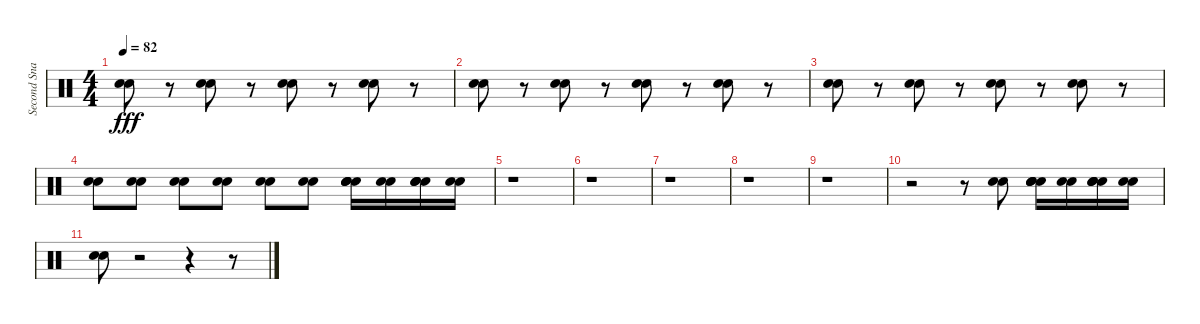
\track ("Second Snare" "Second Sna") {instrument percussion}
\staff {score}
\articulation defaults
\ts (4 4)
\tempo 82
\clef neutral
\ks c
("Snare (hit) 2" "Electric Snare (hit)").8{dy fff} r.8 ("Snare (hit) 2" "Electric Snare (hit)").8 r.8 ("Snare (hit) 2" "Electric Snare (hit)").8 r.8 ("Snare (hit) 2" "Electric Snare (hit)").8 r.8 |
("Snare (hit) 2" "Electric Snare (hit)").8 r.8 ("Snare (hit) 2" "Electric Snare (hit)").8 r.8 ("Snare (hit) 2" "Electric Snare (hit)").8 r.8 ("Snare (hit) 2" "Electric Snare (hit)").8 r.8 |
("Snare (hit) 2" "Electric Snare (hit)").8 r.8 ("Snare (hit) 2" "Electric Snare (hit)").8 r.8 ("Snare (hit) 2" "Electric Snare (hit)").8 r.8 ("Snare (hit) 2" "Electric Snare (hit)").8 r.8 |
("Snare (hit) 2" "Electric Snare (hit)").8 ("Snare (hit) 2" "Electric Snare (hit)").8 ("Snare (hit) 2" "Electric Snare (hit)").8 ("Snare (hit) 2" "Electric Snare (hit)").8 ("Snare (hit) 2" "Electric Snare (hit)").8 ("Snare (hit) 2" "Electric Snare (hit)").8 ("Snare (hit) 2" "Snare (hit) 2" "Electric Snare (hit)" "Electric Snare (hit)").16 ("Snare (hit) 2" "Electric Snare (hit)").16 ("Snare (hit) 2" "Snare (hit) 2" "Electric Snare (hit)" "Electric Snare (hit)").16 ("Snare (hit) 2" "Electric Snare (hit)").16 |
r.1 |
r.1 |
r.1 |
r.1 |
r.1 |
r.2 r.8 ("Snare (hit) 2" "Electric Snare (hit)").8 ("Snare (hit) 2" "Snare (hit) 2" "Electric Snare (hit)" "Electric Snare (hit)").16 ("Snare (hit) 2" "Electric Snare (hit)").16 ("Snare (hit) 2" "Snare (hit) 2" "Electric Snare (hit)" "Electric Snare (hit)").16 ("Snare (hit) 2" "Electric Snare (hit)").16 |
("Snare (hit) 2" "Electric Snare (hit)").8 r.2 r.4 r.8
